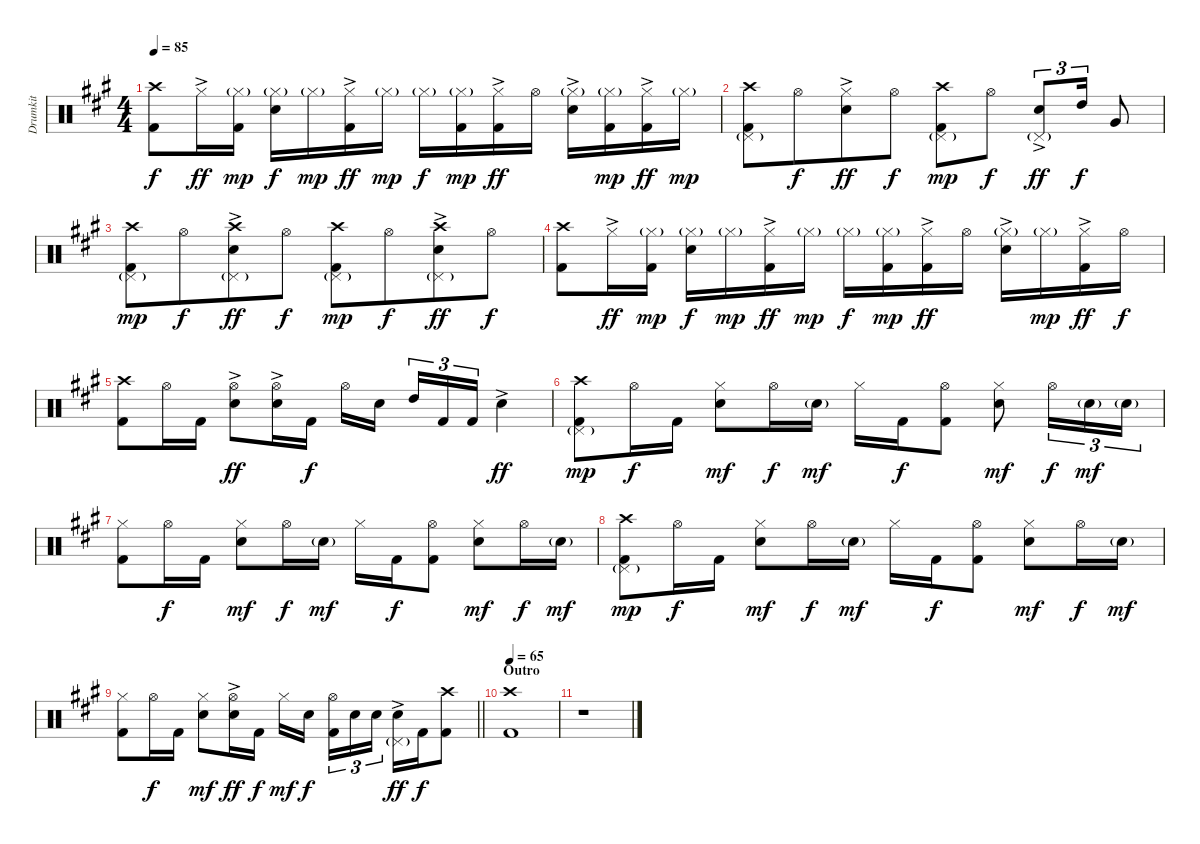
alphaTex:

\track ("Drumkit" "Drumkit") {instrument percussion}
\staff {score}
\articulation defaults
\ts (4 4)
\tempo 85
\clef neutral
\ks a
("Crash high (hit)" "Kick (hit) 2").8{dy f} "Hi-Hat (closed)"{ac}.16{dy ff} ("Hi-Hat (closed)"{g} "Kick (hit) 2").16{dy mp} ("Hi-Hat (closed)"{g} "Electric Snare (hit)").16{dy f} "Hi-Hat (closed)"{g}.16{dy mp} ("Hi-Hat (closed)"{ac} "Kick (hit) 2").16{dy ff} "Hi-Hat (closed)"{g}.16{dy mp} "Hi-Hat (closed)"{g}.16{dy f} ("Hi-Hat (closed)"{g} "Kick (hit) 2").16{dy mp} ("Hi-Hat (closed)"{ac} "Kick (hit) 2").16{dy ff} "Hi-Hat (open)".16 ("Hi-Hat (closed)"{g} "Electric Snare (hit)"{ac}).16 ("Hi-Hat (closed)"{g} "Kick (hit) 2").16{dy mp} ("Hi-Hat (closed)"{ac} "Kick (hit) 2").16{dy ff} "Hi-Hat (closed)"{g}.16{dy mp} |
("Crash high (hit)" "Pedal Hi-Hat (hit)"{g} "Kick (hit) 2").8 "Hi-Hat (open)".8{dy f beam merge} ("Hi-Hat (closed)" "Electric Snare (hit)"{ac}).8{dy ff} "Hi-Hat (open)".8{dy f} ("Crash high (hit)" "Pedal Hi-Hat (hit)"{g} "Kick (hit) 2").8{dy mp} "Hi-Hat (open)".8{dy f} ("Pedal Hi-Hat (hit)"{g} "Electric Snare (hit)"{ac}).8{tu (3 2) dy ff} "High Tom (hit)".16{tu (3 2) dy f} "Very Low Tom (hit)".8 |
("Crash high (hit)" "Pedal Hi-Hat (hit)"{g} "Kick (hit) 2").8{dy mp} "Hi-Hat (open)".8{dy f beam merge} ("Crash high (hit)" "Pedal Hi-Hat (hit)"{g} "Electric Snare (hit)"{ac}).8{dy ff} "Hi-Hat (open)".8{dy f} ("Crash high (hit)" "Pedal Hi-Hat (hit)"{g} "Kick (hit) 2").8{dy mp} "Hi-Hat (open)".8{dy f beam merge} ("Crash high (hit)" "Pedal Hi-Hat (hit)"{g} "Electric Snare (hit)"{ac}).8{dy ff} "Hi-Hat (open)".8{dy f} |
("Crash high (hit)" "Kick (hit) 2").8 "Hi-Hat (closed)"{ac}.16{dy ff} ("Hi-Hat (closed)"{g} "Kick (hit) 2").16{dy mp} ("Hi-Hat (closed)"{g} "Electric Snare (hit)").16{dy f} "Hi-Hat (closed)"{g}.16{dy mp} ("Hi-Hat (closed)"{ac} "Kick (hit) 2").16{dy ff} "Hi-Hat (closed)"{g}.16{dy mp} "Hi-Hat (closed)"{g}.16{dy f} ("Hi-Hat (closed)"{g} "Kick (hit) 2").16{dy mp} ("Hi-Hat (closed)"{ac} "Kick (hit) 2").16{dy ff} "Hi-Hat (open)".16 ("Hi-Hat (closed)"{g} "Electric Snare (hit)"{ac}).16 "Hi-Hat (closed)"{g}.16{dy mp} ("Hi-Hat (closed)"{ac} "Kick (hit) 2").16{dy ff} "Hi-Hat (open)".16{dy f} |
("Crash high (hit)" "Kick (hit) 2").8 "Hi-Hat (open)".16 "Kick (hit) 2".16 ("Hi-Hat (open)" "Electric Snare (hit)"{ac}).8{dy ff} ("Hi-Hat (open)" "Electric Snare (hit)"{ac}).16 "Kick (hit) 2".16{dy f} "Hi-Hat (open)".16 "Electric Snare (hit)".16{beam splitsecondary} "High Tom (hit)".16{tu (3 2)} "Kick (hit) 2".16{tu (3 2)} "Kick (hit) 2".16{tu (3 2)} "Electric Snare (hit)"{ac}.4{dy ff} |
("Crash high (hit)" "Pedal Hi-Hat (hit)"{g} "Kick (hit) 2").8{dy mp} "Hi-Hat (open)".16{dy f} "Kick (hit) 2".16{beam split} ("Hi-Hat (closed)" "Electric Snare (hit)").8{dy mf} "Hi-Hat (open)".16{dy f} "Electric Snare (hit)"{g}.16{dy mf} "Hi-Hat (closed)".16 "Kick (hit) 2".16{dy f} ("Hi-Hat (open)" "Kick (hit) 2").8{beam split} ("Hi-Hat (closed)" "Electric Snare (hit)").8{dy mf} "Hi-Hat (open)".16{tu (3 2) dy f} "Electric Snare (hit)"{g}.16{tu (3 2) dy mf} "Electric Snare (hit)"{g}.16{tu (3 2)} |
("Hi-Hat (closed)" "Kick (hit) 2").8 "Hi-Hat (open)".16{dy f} "Kick (hit) 2".16{beam split} ("Hi-Hat (closed)" "Electric Snare (hit)").8{dy mf} "Hi-Hat (open)".16{dy f} "Electric Snare (hit)"{g}.16{dy mf} "Hi-Hat (closed)".16 "Kick (hit) 2".16{dy f} ("Hi-Hat (open)" "Kick (hit) 2").8{beam split} ("Hi-Hat (closed)" "Electric Snare (hit)").8{dy mf} "Hi-Hat (open)".16{dy f} "Electric Snare (hit)"{g}.16{dy mf} |
("Crash high (hit)" "Pedal Hi-Hat (hit)"{g} "Kick (hit) 2").8{dy mp} "Hi-Hat (open)".16{dy f} "Kick (hit) 2".16{beam split} ("Hi-Hat (closed)" "Electric Snare (hit)").8{dy mf} "Hi-Hat (open)".16{dy f} "Electric Snare (hit)"{g}.16{dy mf} "Hi-Hat (closed)".16 "Kick (hit) 2".16{dy f} ("Hi-Hat (open)" "Kick (hit) 2").8{beam split} ("Hi-Hat (closed)" "Electric Snare (hit)").8{dy mf} "Hi-Hat (open)".16{dy f} "Electric Snare (hit)"{g}.16{dy mf} |
\barLineRight lightlight
("Hi-Hat (closed)" "Kick (hit) 2").8 "Hi-Hat (open)".16{dy f} "Kick (hit) 2".16{beam split} ("Hi-Hat (closed)" "Electric Snare (hit)").8{dy mf} ("Hi-Hat (open)" "Electric Snare (hit)"{ac}).16{dy ff} "Kick (hit) 2".16{dy f} "Hi-Hat (closed)".16{dy mf} "Electric Snare (hit)".16{dy f beam splitsecondary} ("Hi-Hat (open)" "Kick (hit) 2").16{tu (3 2)} "Electric Snare (hit)".16{tu (3 2)} "Electric Snare (hit)".16{tu (3 2)} ("Pedal Hi-Hat (hit)"{g} "Electric Snare (hit)"{ac}).16{dy ff} "Kick (hit) 2".16{dy f} ("Crash high (hit)" "Kick (hit) 2").8 |
\section ("" "Outro")
\tempo 65
("Crash high (hit)" "Kick (hit) 2").1 |
r.1
